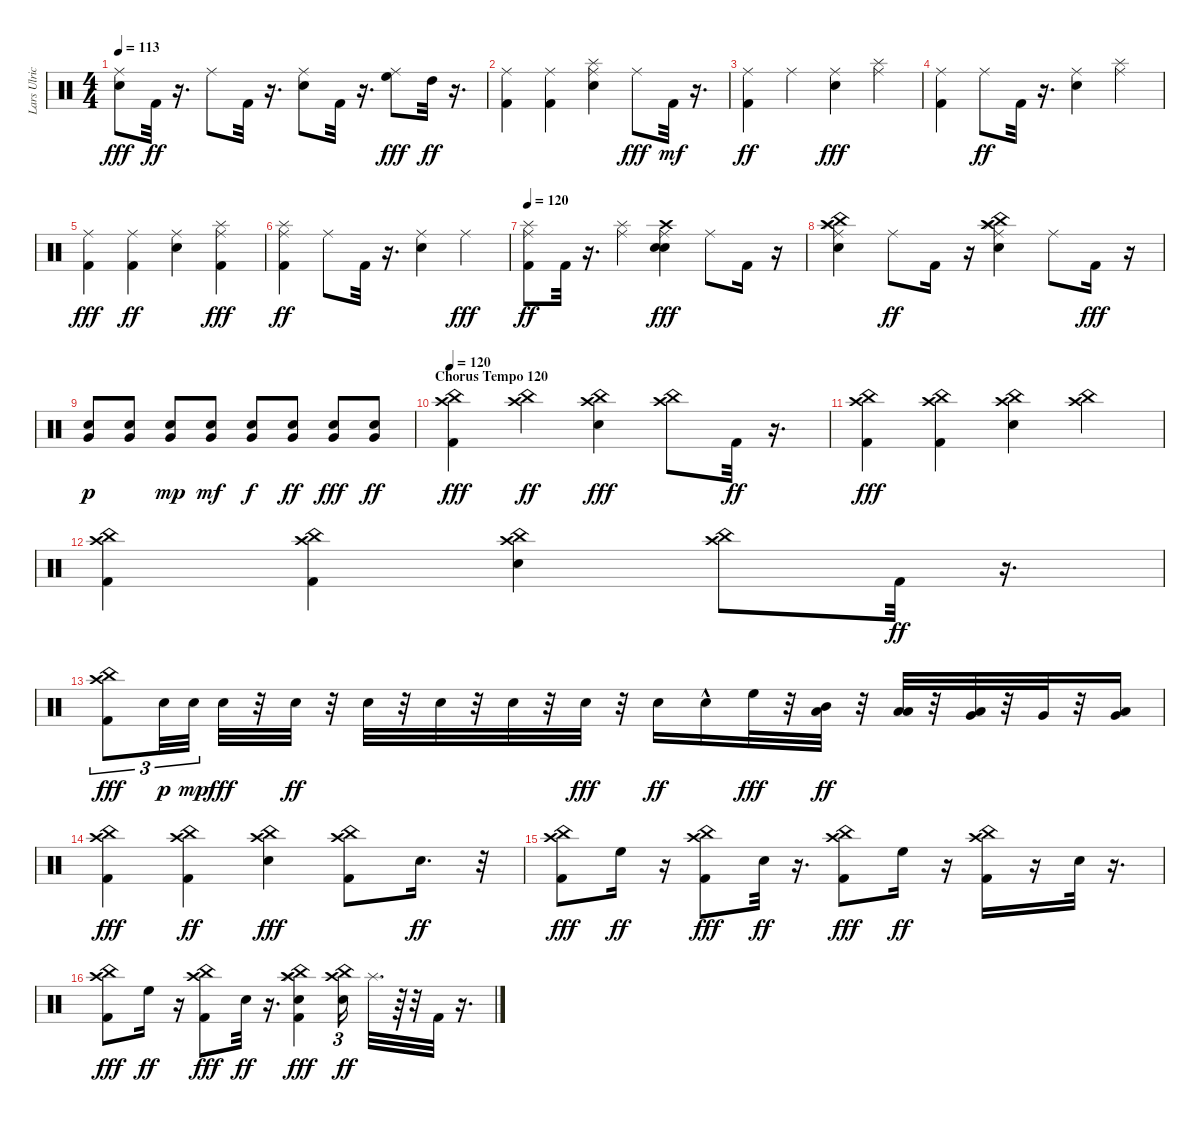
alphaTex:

\track ("Lars Ulrich" "Lars Ulric") {instrument percussion}
\staff {score}
\articulation defaults
\ts (4 4)
\tempo 113
\clef neutral
\ks c
("Snare (hit) 2" "Ride (middle)").8{dy fff} "Kick (hit) 2".32{dy ff} r.16{d} "Ride (middle)".8 "Kick (hit) 2".32 r.16{d} ("Snare (hit) 2" "Ride (middle)").8 "Kick (hit) 2".32 r.16{d} ("High Floor Tom (hit)" "Ride (middle)").8{dy fff} "High Tom (hit)".32{dy ff} r.16{d} |
("Kick (hit) 2" "Ride (middle)").4 ("Kick (hit) 2" "Ride (middle)").4 ("Splash (hit)" "Ride (middle)" "Snare (hit) 2").4 "Ride (middle)".8{dy fff} "Kick (hit) 2".32{dy mf} r.16{d} |
("Kick (hit) 2" "Ride (middle)").4{dy ff} "Ride (middle)".4 ("Snare (hit) 2" "Ride (middle)").4{dy fff} ("Splash (hit)" "Ride (middle)").4 |
("Kick (hit) 2" "Ride (middle)").4 "Ride (middle)".8{dy ff} "Kick (hit) 2".32 r.16{d} ("Snare (hit) 2" "Ride (middle)").4 ("Splash (hit)" "Ride (middle)").4 |
("Kick (hit) 2" "Ride (middle)").4{dy fff} ("Kick (hit) 2" "Ride (middle)").4{dy ff} ("Snare (hit) 2" "Ride (middle)").4 ("Splash (hit)" "Kick (hit) 2" "Ride (middle)").4{dy fff} |
("Splash (hit)" "Kick (hit) 2" "Ride (middle)").4{dy ff} "Ride (middle)".8 "Kick (hit) 2".32 r.16{d} ("Ride (middle)" "Snare (hit) 2").4 "Ride (middle)".4{dy fff} |
\tempo 120
("Kick (hit) 2" "Splash (hit)" "Ride (middle)").8{dy ff} "Kick (hit) 2".32 r.16{d} ("Splash (hit)" "Ride (middle)").4 ("Snare (hit) 2" "Ride (middle)" "Snare (hit) 2" "Crash high (hit)").4{dy fff} "Ride (middle)".8 "Kick (hit) 2".16 r.16 |
("Splash (hit)" "China (hit)" "Snare (hit) 2" "Crash high (hit)" "Ride (middle)").4 "Ride (middle)".8{dy ff} "Kick (hit) 2".16 r.16 ("Splash (hit)" "China (hit)" "Crash high (hit)" "Ride (middle)" "Snare (hit) 2").4 "Ride (middle)".8 "Kick (hit) 2".16{dy fff} r.16 |
("Very Low Tom (hit)" "Snare (hit) 2").8{dy p} ("Very Low Tom (hit)" "Snare (hit) 2").8 ("Snare (hit) 2" "Very Low Tom (hit)").8{dy mp} ("Very Low Tom (hit)" "Snare (hit) 2").8{dy mf} ("Very Low Tom (hit)" "Snare (hit) 2").8{dy f} ("Very Low Tom (hit)" "Snare (hit) 2").8{dy ff} ("Very Low Tom (hit)" "Snare (hit) 2").8{dy fff} ("Snare (hit) 2" "Very Low Tom (hit)").8{dy ff} |
\section ("" "Chorus Tempo 120")
\tempo 120
("Kick (hit) 2" "China (hit)" "Crash high (hit)").4{dy fff} ("China (hit)" "Crash high (hit)").4{dy ff} ("Snare (hit) 2" "China (hit)" "Crash high (hit)").4{dy fff} ("China (hit)" "Crash high (hit)").8 "Kick (hit) 2".32{dy ff} r.16{d} |
("Kick (hit) 2" "China (hit)" "Crash high (hit)").4{dy fff} ("Kick (hit) 2" "China (hit)" "Crash high (hit)").4 ("Snare (hit) 2" "China (hit)" "Crash high (hit)").4 ("China (hit)" "Crash high (hit)").4 |
("Kick (hit) 2" "China (hit)" "Crash high (hit)").4 ("Kick (hit) 2" "China (hit)" "Crash high (hit)").4 ("Snare (hit) 2" "Crash high (hit)" "China (hit)").4 ("China (hit)" "Crash high (hit)").8 "Kick (hit) 2".32{dy ff} r.16{d} |
("Kick (hit) 2" "China (hit)" "Crash high (hit)").8{tu (3 2) dy fff} "Snare (hit) 2".32{tu (3 2) dy p} "Snare (hit) 2".32{tu (3 2) dy mp} "Snare (hit) 2".32{dy fff} r.32 "Snare (hit) 2".32{dy ff} r.32 "Snare (hit) 2".32 r.32 "Snare (hit) 2".32 r.32 "Snare (hit) 2".32 r.32 "Snare (hit) 2".32{dy fff} r.32 "Snare (hit) 2".16{dy ff} "Snare (hit) 2"{hac}.16 "High Floor Tom (hit)".32{dy fff} r.32 ("Low Tom (hit)" "Mid Tom (hit)").32{dy ff} r.32 ("Low Floor Tom (hit)" "Low Tom (hit)").32 r.32 ("Very Low Tom (hit)" "Low Tom (hit)").32 r.32 "Very Low Tom (hit)".32 r.32 ("Low Floor Tom (hit)" "Very Low Tom (hit)").16 |
("Kick (hit) 2" "China (hit)" "Crash high (hit)").4{dy fff} ("Kick (hit) 2" "China (hit)" "Crash high (hit)").4{dy ff} ("Snare (hit) 2" "China (hit)" "Crash high (hit)").4{dy fff} ("Kick (hit) 2" "China (hit)" "Crash high (hit)").8 "Snare (hit) 2".16{d dy ff} r.32 |
("Kick (hit) 2" "China (hit)" "Crash high (hit)").8{dy fff} "High Floor Tom (hit)".16{dy ff} r.16 ("Kick (hit) 2" "China (hit)" "Crash high (hit)").8{dy fff} "Snare (hit) 2".32{dy ff} r.16{d} ("Kick (hit) 2" "China (hit)" "Crash high (hit)").8{dy fff} "High Floor Tom (hit)".16{dy ff} r.16 ("Crash high (hit)" "Kick (hit) 2" "China (hit)").16 r.16 "Snare (hit) 2".32 r.16{d} |
("Kick (hit) 2" "China (hit)" "Crash high (hit)").8{dy fff} "High Floor Tom (hit)".16{dy ff} r.16 ("Kick (hit) 2" "China (hit)" "Crash high (hit)").8{dy fff} "Snare (hit) 2".32{dy ff} r.16{d} ("Splash (hit)" "Kick (hit) 2" "Snare (hit) 2" "China (hit)" "Crash high (hit)").4{dy fff} ("Snare (hit) 2" "Crash high (hit)" "China (hit)").16{tu (3 2) dy ff} "Splash (hit)".32{d} r.64 r.32 "Kick (hit) 2".32 r.16{d}
